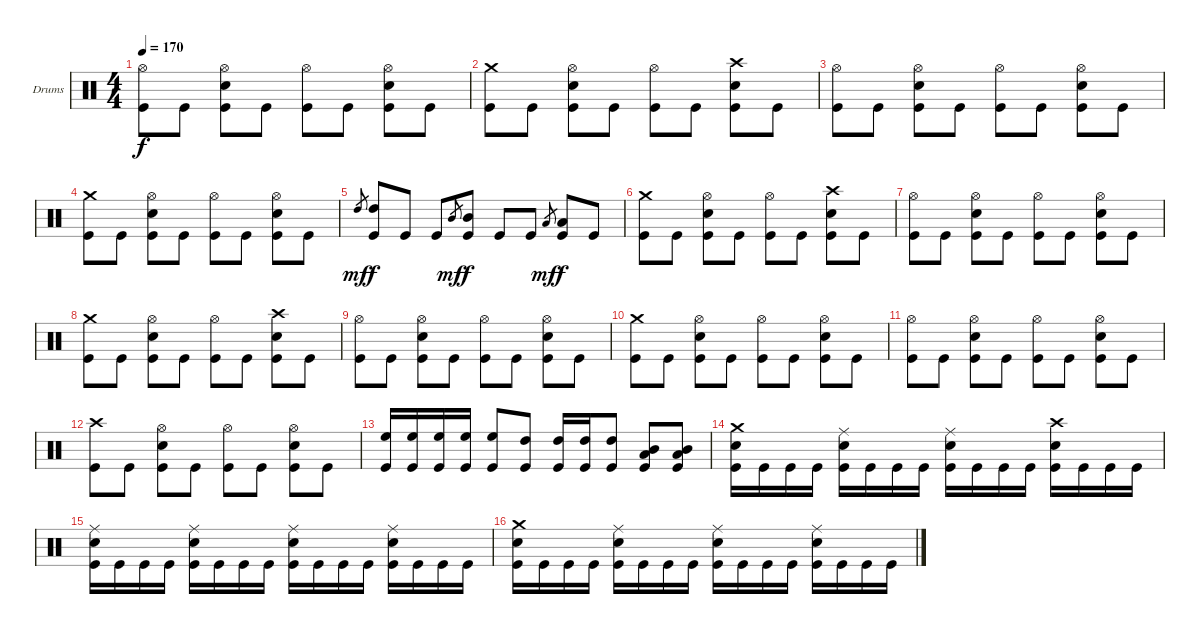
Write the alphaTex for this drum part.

\bracketExtendMode groupsimilarinstruments
\firstSystemTrackNameOrientation horizontal
\otherSystemsTrackNameOrientation horizontal
\track ("Дмитрий Кривенков" "Drums") {instrument percussion}
\staff {score}
\articulation defaults
\ts (4 4)
\tempo 170
\clef neutral
\ks c
("Hi-Hat (open)" "Kick (hit)").8{dy f} "Kick (hit)".8 ("Hi-Hat (open)" "Snare (hit) 2" "Kick (hit)").8 "Kick (hit)".8 ("Hi-Hat (open)" "Kick (hit)").8 "Kick (hit)".8 ("Hi-Hat (open)" "Snare (hit) 2" "Kick (hit)").8 "Kick (hit)".8 |
("Crash medium (hit)" "Kick (hit)").8 "Kick (hit)".8 ("Hi-Hat (open)" "Snare (hit) 2" "Kick (hit)").8 "Kick (hit)".8 ("Hi-Hat (open)" "Kick (hit)").8 "Kick (hit)".8 ("Crash high (hit)" "Snare (hit) 2" "Kick (hit)").8 "Kick (hit)".8 |
("Hi-Hat (open)" "Kick (hit)").8 "Kick (hit)".8 ("Hi-Hat (open)" "Snare (hit) 2" "Kick (hit)").8 "Kick (hit)".8 ("Hi-Hat (open)" "Kick (hit)").8 "Kick (hit)".8 ("Hi-Hat (open)" "Snare (hit) 2" "Kick (hit)").8 "Kick (hit)".8 |
("Crash medium (hit)" "Kick (hit)").8 "Kick (hit)".8 ("Hi-Hat (open)" "Snare (hit) 2" "Kick (hit)").8 "Kick (hit)".8 ("Hi-Hat (open)" "Kick (hit)").8 "Kick (hit)".8 ("Hi-Hat (open)" "Snare (hit) 2" "Kick (hit)").8 "Kick (hit)".8 |
"High Tom (hit)".8{gr dy mf} ("High Tom (hit)" "Kick (hit)").8{dy f} "Kick (hit)".8 "Kick (hit)".8 "Mid Tom (hit)".8{gr dy mf} ("Mid Tom (hit)" "Kick (hit)").8{dy f} "Kick (hit)".8 "Kick (hit)".8 "Low Tom (hit)".8{gr dy mf} ("Low Tom (hit)" "Kick (hit)").8{dy f} "Kick (hit)".8 |
("Crash medium (hit)" "Kick (hit)").8 "Kick (hit)".8 ("Hi-Hat (open)" "Snare (hit) 2" "Kick (hit)").8 "Kick (hit)".8 ("Hi-Hat (open)" "Kick (hit)").8 "Kick (hit)".8 ("Crash high (hit)" "Snare (hit) 2" "Kick (hit)").8 "Kick (hit)".8 |
("Hi-Hat (open)" "Kick (hit)").8 "Kick (hit)".8 ("Hi-Hat (open)" "Snare (hit) 2" "Kick (hit)").8 "Kick (hit)".8 ("Hi-Hat (open)" "Kick (hit)").8 "Kick (hit)".8 ("Hi-Hat (open)" "Snare (hit) 2" "Kick (hit)").8 "Kick (hit)".8 |
("Crash medium (hit)" "Kick (hit)").8 "Kick (hit)".8 ("Hi-Hat (open)" "Snare (hit) 2" "Kick (hit)").8 "Kick (hit)".8 ("Hi-Hat (open)" "Kick (hit)").8 "Kick (hit)".8 ("Crash high (hit)" "Snare (hit) 2" "Kick (hit)").8 "Kick (hit)".8 |
("Hi-Hat (open)" "Kick (hit)").8 "Kick (hit)".8 ("Hi-Hat (open)" "Snare (hit) 2" "Kick (hit)").8 "Kick (hit)".8 ("Hi-Hat (open)" "Kick (hit)").8 "Kick (hit)".8 ("Hi-Hat (open)" "Snare (hit) 2" "Kick (hit)").8 "Kick (hit)".8 |
("Crash medium (hit)" "Kick (hit)").8 "Kick (hit)".8 ("Hi-Hat (open)" "Snare (hit) 2" "Kick (hit)").8 "Kick (hit)".8 ("Hi-Hat (open)" "Kick (hit)").8 "Kick (hit)".8 ("Hi-Hat (open)" "Snare (hit) 2" "Kick (hit)").8 "Kick (hit)".8 |
("Hi-Hat (open)" "Kick (hit)").8 "Kick (hit)".8 ("Hi-Hat (open)" "Snare (hit) 2" "Kick (hit)").8 "Kick (hit)".8 ("Hi-Hat (open)" "Kick (hit)").8 "Kick (hit)".8 ("Hi-Hat (open)" "Snare (hit) 2" "Kick (hit)").8 "Kick (hit)".8 |
("Crash high (hit)" "Kick (hit)").8 "Kick (hit)".8 ("Hi-Hat (open)" "Snare (hit) 2" "Kick (hit)").8 "Kick (hit)".8 ("Hi-Hat (open)" "Kick (hit)").8 "Kick (hit)".8 ("Hi-Hat (open)" "Snare (hit) 2" "Kick (hit)").8 "Kick (hit)".8 |
("High Floor Tom (hit)" "Kick (hit)").16 ("High Floor Tom (hit)" "Kick (hit)").16 ("High Floor Tom (hit)" "Kick (hit)").16 ("High Floor Tom (hit)" "Kick (hit)").16 ("High Floor Tom (hit)" "Kick (hit)").8 ("High Tom (hit)" "Kick (hit)").8 ("High Tom (hit)" "Kick (hit)").16 ("High Tom (hit)" "Kick (hit)").16 ("High Tom (hit)" "Kick (hit)").8 ("Mid Tom (hit)" "Low Tom (hit)" "Kick (hit)").8 ("Mid Tom (hit)" "Low Tom (hit)" "Kick (hit)").8 |
("Crash medium (hit)" "Snare (hit) 2" "Kick (hit)").16 "Kick (hit)".16 "Kick (hit)".16 "Kick (hit)".16 ("Ride (middle)" "Snare (hit) 2" "Kick (hit)").16 "Kick (hit)".16 "Kick (hit)".16 "Kick (hit)".16 ("Ride (middle)" "Snare (hit) 2" "Kick (hit)").16 "Kick (hit)".16 "Kick (hit)".16 "Kick (hit)".16 ("Crash high (hit)" "Snare (hit) 2" "Kick (hit)").16 "Kick (hit)".16 "Kick (hit)".16 "Kick (hit)".16 |
("Ride (middle)" "Snare (hit) 2" "Kick (hit)").16 "Kick (hit)".16 "Kick (hit)".16 "Kick (hit)".16 ("Ride (middle)" "Snare (hit) 2" "Kick (hit)").16 "Kick (hit)".16 "Kick (hit)".16 "Kick (hit)".16 ("Ride (middle)" "Snare (hit) 2" "Kick (hit)").16 "Kick (hit)".16 "Kick (hit)".16 "Kick (hit)".16 ("Ride (middle)" "Snare (hit) 2" "Kick (hit)").16 "Kick (hit)".16 "Kick (hit)".16 "Kick (hit)".16 |
("Crash medium (hit)" "Snare (hit) 2" "Kick (hit)").16 "Kick (hit)".16 "Kick (hit)".16 "Kick (hit)".16 ("Ride (middle)" "Snare (hit) 2" "Kick (hit)").16 "Kick (hit)".16 "Kick (hit)".16 "Kick (hit)".16 ("Ride (middle)" "Snare (hit) 2" "Kick (hit)").16 "Kick (hit)".16 "Kick (hit)".16 "Kick (hit)".16 ("Ride (middle)" "Snare (hit) 2" "Kick (hit)").16 "Kick (hit)".16 "Kick (hit)".16 "Kick (hit)".16
